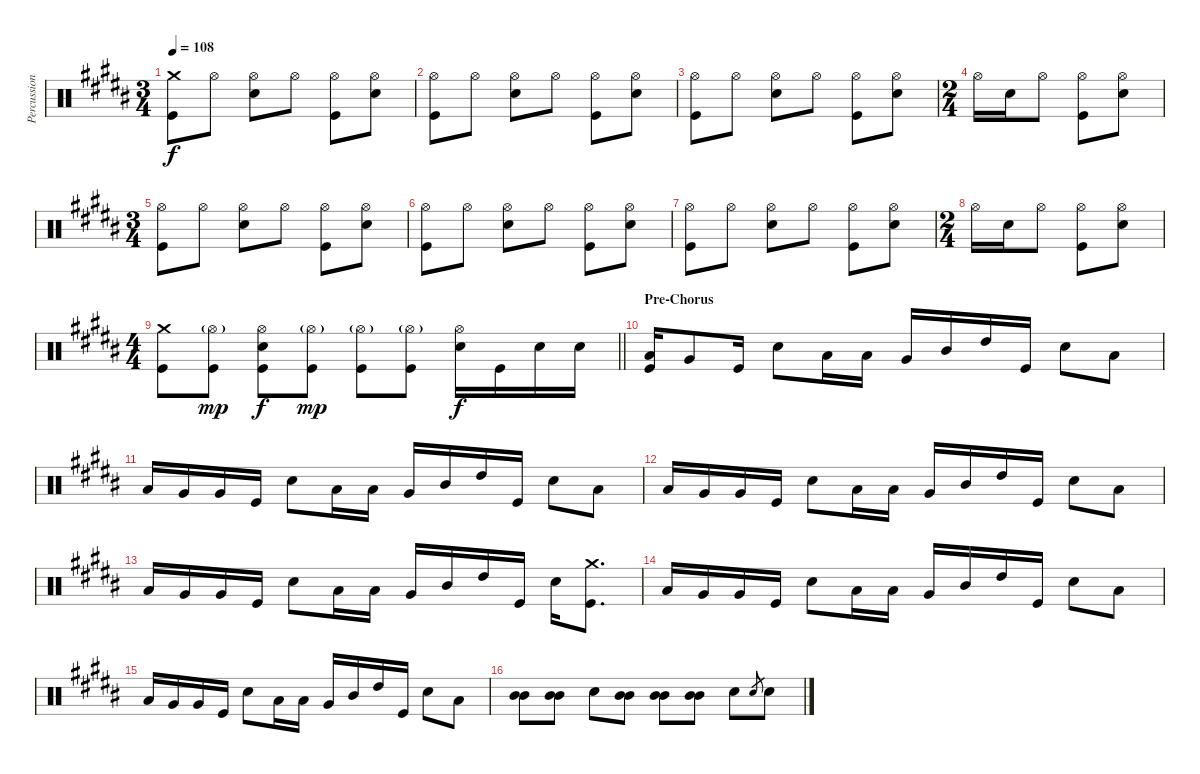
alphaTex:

\track ("Percussion" "Percussion") {instrument percussion}
\staff {score}
\articulation defaults
\ts (3 4)
\tempo 108
\clef neutral
\ks b
("Crash medium (hit)" "Kick (hit)").8{dy f} "Hi-Hat (open)".8 ("Hi-Hat (open)" "Electric Snare (hit)").8 "Hi-Hat (open)".8 ("Hi-Hat (open)" "Kick (hit)").8 ("Hi-Hat (open)" "Electric Snare (hit)").8 |
("Hi-Hat (open)" "Kick (hit)").8 "Hi-Hat (open)".8 ("Hi-Hat (open)" "Electric Snare (hit)").8 "Hi-Hat (open)".8 ("Hi-Hat (open)" "Kick (hit)").8 ("Hi-Hat (open)" "Electric Snare (hit)").8 |
("Hi-Hat (open)" "Kick (hit)").8 "Hi-Hat (open)".8 ("Hi-Hat (open)" "Electric Snare (hit)").8 "Hi-Hat (open)".8 ("Hi-Hat (open)" "Kick (hit)").8 ("Hi-Hat (open)" "Electric Snare (hit)").8 |
\ts (2 4)
"Hi-Hat (open)".16 "Electric Snare (hit)".16 "Hi-Hat (open)".8 ("Hi-Hat (open)" "Kick (hit)").8 ("Hi-Hat (open)" "Electric Snare (hit)").8 |
\ts (3 4)
("Hi-Hat (open)" "Kick (hit)").8 "Hi-Hat (open)".8 ("Hi-Hat (open)" "Electric Snare (hit)").8 "Hi-Hat (open)".8 ("Hi-Hat (open)" "Kick (hit)").8 ("Hi-Hat (open)" "Electric Snare (hit)").8 |
("Hi-Hat (open)" "Kick (hit)").8 "Hi-Hat (open)".8 ("Hi-Hat (open)" "Electric Snare (hit)").8 "Hi-Hat (open)".8 ("Hi-Hat (open)" "Kick (hit)").8 ("Hi-Hat (open)" "Electric Snare (hit)").8 |
("Hi-Hat (open)" "Kick (hit)").8 "Hi-Hat (open)".8 ("Hi-Hat (open)" "Electric Snare (hit)").8 "Hi-Hat (open)".8 ("Hi-Hat (open)" "Kick (hit)").8 ("Hi-Hat (open)" "Electric Snare (hit)").8 |
\ts (2 4)
"Hi-Hat (open)".16 "Electric Snare (hit)".16 "Hi-Hat (open)".8 ("Hi-Hat (open)" "Kick (hit)").8 ("Hi-Hat (open)" "Electric Snare (hit)").8 |
\ts (4 4)
\barLineRight lightlight
("Crash medium (hit)" "Kick (hit)").8 ("Hi-Hat (open)"{g} "Kick (hit)").8{dy mp} ("Hi-Hat (open)" "Electric Snare (hit)" "Kick (hit)").8{dy f} ("Hi-Hat (open)"{g} "Kick (hit)").8{dy mp} ("Hi-Hat (open)"{g} "Kick (hit)").8 ("Hi-Hat (open)"{g} "Kick (hit)").8 ("Hi-Hat (open)" "Electric Snare (hit)").16{dy f} "Kick (hit)".16 "Electric Snare (hit)".16 "Electric Snare (hit)".16 |
\section ("" "Pre-Chorus")
("Low Tom (hit)" "Kick (hit)").16 "Very Low Tom (hit)".8 "Kick (hit)".16 "Electric Snare (hit)".8 "Low Tom (hit)".16 "Low Tom (hit)".16 "Very Low Tom (hit)".16 "Mid Tom (hit)".16 "High Tom (hit)".16 "Kick (hit)".16 "Electric Snare (hit)".8 "Low Tom (hit)".8 |
"Low Tom (hit)".16 "Very Low Tom (hit)".16 "Very Low Tom (hit)".16 "Kick (hit)".16 "Electric Snare (hit)".8 "Low Tom (hit)".16 "Low Tom (hit)".16 "Very Low Tom (hit)".16 "Mid Tom (hit)".16 "High Tom (hit)".16 "Kick (hit)".16 "Electric Snare (hit)".8 "Low Tom (hit)".8 |
"Low Tom (hit)".16 "Very Low Tom (hit)".16 "Very Low Tom (hit)".16 "Kick (hit)".16 "Electric Snare (hit)".8 "Low Tom (hit)".16 "Low Tom (hit)".16 "Very Low Tom (hit)".16 "Mid Tom (hit)".16 "High Tom (hit)".16 "Kick (hit)".16 "Electric Snare (hit)".8 "Low Tom (hit)".8 |
"Low Tom (hit)".16 "Very Low Tom (hit)".16 "Very Low Tom (hit)".16 "Kick (hit)".16 "Electric Snare (hit)".8 "Low Tom (hit)".16 "Low Tom (hit)".16 "Very Low Tom (hit)".16 "Mid Tom (hit)".16 "High Tom (hit)".16 "Kick (hit)".16 "Electric Snare (hit)".16 ("Crash medium (hit)" "Kick (hit)").8{d} |
"Low Tom (hit)".16 "Very Low Tom (hit)".16 "Very Low Tom (hit)".16 "Kick (hit)".16 "Electric Snare (hit)".8 "Low Tom (hit)".16 "Low Tom (hit)".16 "Very Low Tom (hit)".16 "Mid Tom (hit)".16 "High Tom (hit)".16 "Kick (hit)".16 "Electric Snare (hit)".8 "Low Tom (hit)".8 |
"Low Tom (hit)".16 "Very Low Tom (hit)".16 "Very Low Tom (hit)".16 "Kick (hit)".16 "Electric Snare (hit)".8 "Low Tom (hit)".16 "Low Tom (hit)".16 "Very Low Tom (hit)".16 "Mid Tom (hit)".16 "High Tom (hit)".16 "Kick (hit)".16 "Electric Snare (hit)".8 "Low Tom (hit)".8 |
("Mid Tom (hit)" "Mid Tom (hit)").8 ("Mid Tom (hit)" "Mid Tom (hit)").8 "Electric Snare (hit)".8 ("Mid Tom (hit)" "Mid Tom (hit)").8 ("Mid Tom (hit)" "Mid Tom (hit)").8 ("Mid Tom (hit)" "Mid Tom (hit)").8 "Electric Snare (hit)".8 "Electric Snare (hit)".8{gr} "Electric Snare (hit)".8
